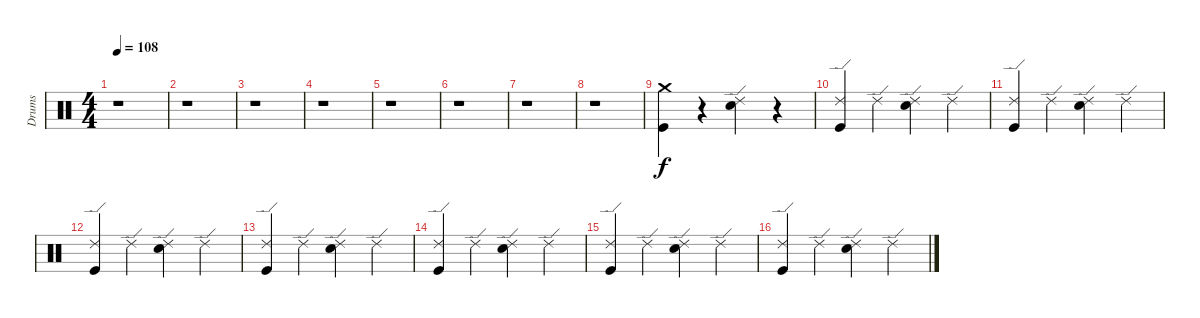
\track ("Drums" "Drums") {instrument percussion}
\staff {score}
\articulation defaults
\ts (4 4)
\tempo 108
\clef neutral
\ks c
r.1{dy f} |
r.1 |
r.1 |
r.1 |
r.1 |
r.1 |
r.1 |
r.1 |
("Crash medium (hit)" "Kick (hit)").4 r.4 ("Ride (edge) 2" "Snare (hit) 2").4 r.4 |
("Ride (edge) 2" "Kick (hit)").4 "Ride (edge) 2".4 ("Ride (edge) 2" "Snare (hit) 2").4 "Ride (edge) 2".4 |
("Ride (edge) 2" "Kick (hit)").4 "Ride (edge) 2".4 ("Ride (edge) 2" "Snare (hit) 2").4 "Ride (edge) 2".4 |
("Ride (edge) 2" "Kick (hit)").4 "Ride (edge) 2".4 ("Ride (edge) 2" "Snare (hit) 2").4 "Ride (edge) 2".4 |
("Ride (edge) 2" "Kick (hit)").4 "Ride (edge) 2".4 ("Ride (edge) 2" "Snare (hit) 2").4 "Ride (edge) 2".4 |
("Ride (edge) 2" "Kick (hit)").4 "Ride (edge) 2".4 ("Ride (edge) 2" "Snare (hit) 2").4 "Ride (edge) 2".4 |
("Ride (edge) 2" "Kick (hit)").4 "Ride (edge) 2".4 ("Ride (edge) 2" "Snare (hit) 2").4 "Ride (edge) 2".4 |
("Ride (edge) 2" "Kick (hit)").4 "Ride (edge) 2".4 ("Ride (edge) 2" "Snare (hit) 2").4 "Ride (edge) 2".4
